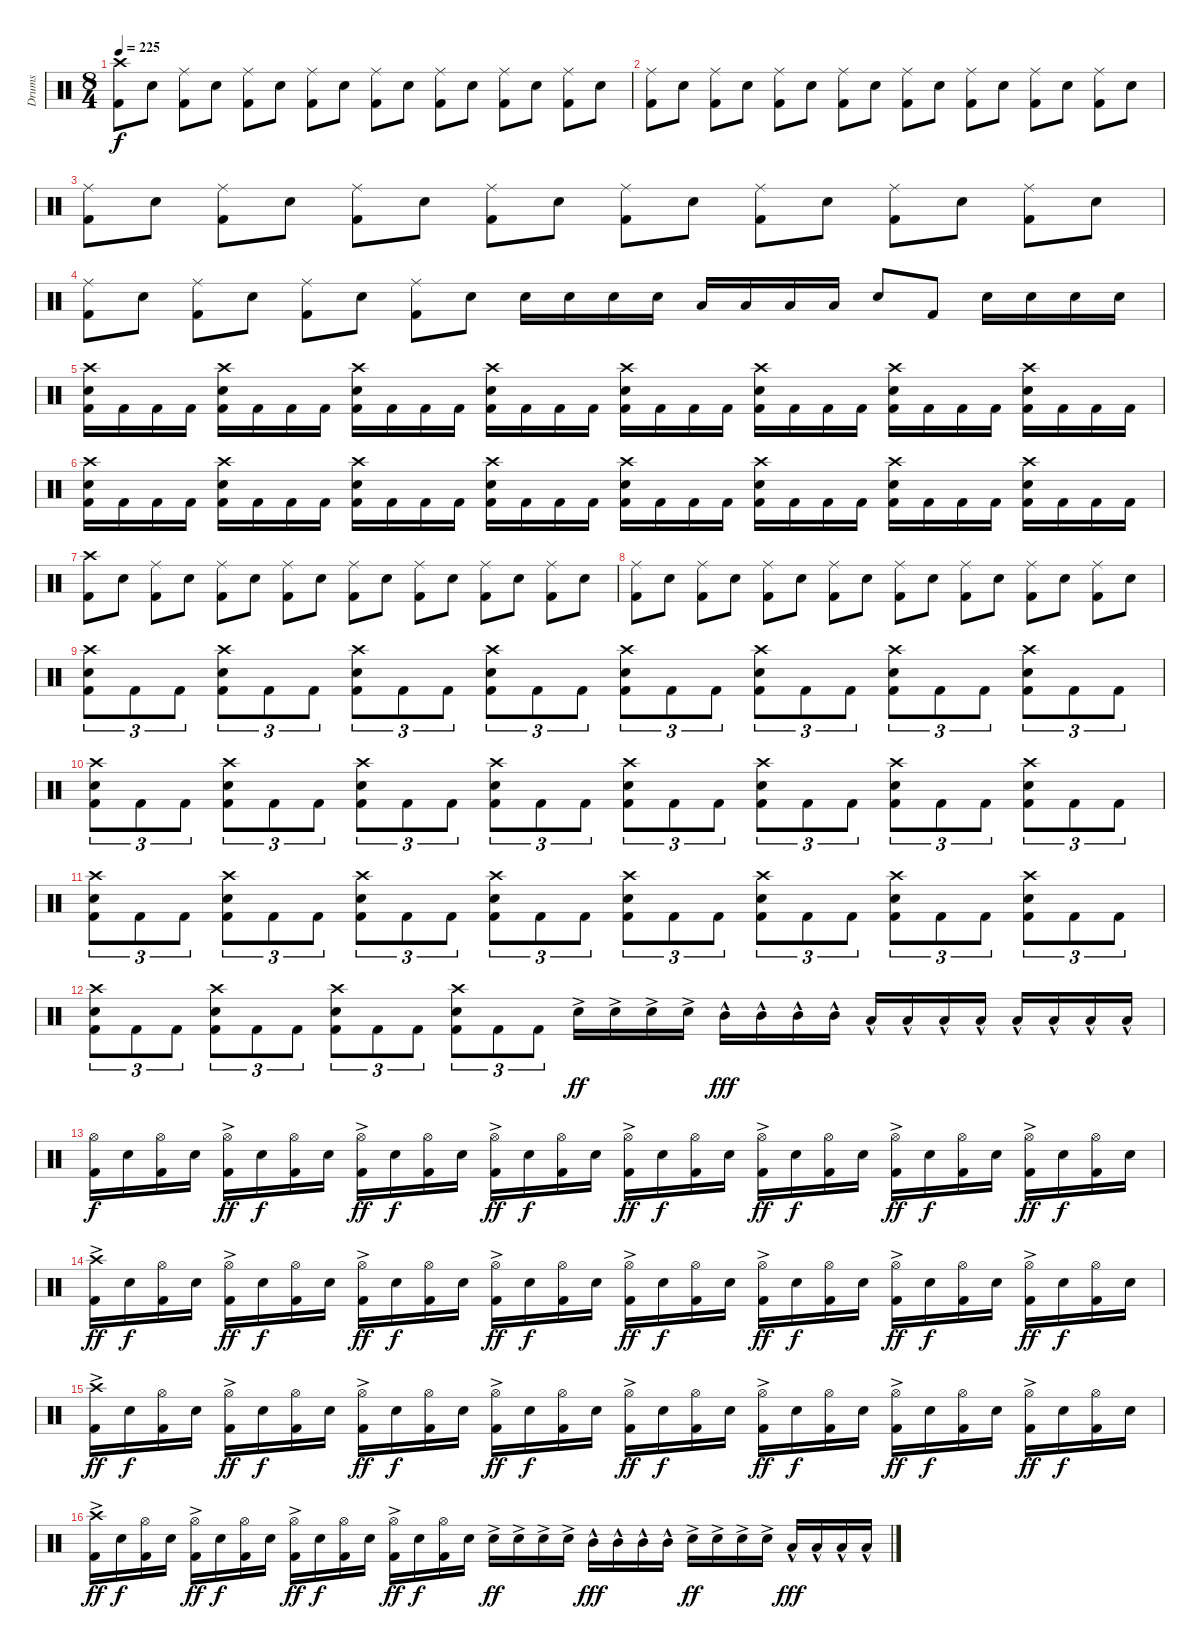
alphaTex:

\track ("Drums" "Drums") {instrument percussion}
\staff {score}
\articulation defaults
\ts (8 4)
\tempo 225
\clef neutral
\ks c
("Crash high (hit)" "Kick (hit) 2").8{dy f} "Electric Snare (hit)".8 ("Ride (middle)" "Kick (hit) 2").8 "Electric Snare (hit)".8 ("Ride (middle)" "Kick (hit) 2").8 "Electric Snare (hit)".8 ("Ride (middle)" "Kick (hit) 2").8 "Electric Snare (hit)".8 ("Ride (middle)" "Kick (hit) 2").8 "Electric Snare (hit)".8 ("Ride (middle)" "Kick (hit) 2").8 "Electric Snare (hit)".8 ("Ride (middle)" "Kick (hit) 2").8 "Electric Snare (hit)".8 ("Ride (middle)" "Kick (hit) 2").8 "Electric Snare (hit)".8 |
("Ride (middle)" "Kick (hit) 2").8 "Electric Snare (hit)".8 ("Ride (middle)" "Kick (hit) 2").8 "Electric Snare (hit)".8 ("Ride (middle)" "Kick (hit) 2").8 "Electric Snare (hit)".8 ("Ride (middle)" "Kick (hit) 2").8 "Electric Snare (hit)".8 ("Ride (middle)" "Kick (hit) 2").8 "Electric Snare (hit)".8 ("Ride (middle)" "Kick (hit) 2").8 "Electric Snare (hit)".8 ("Ride (middle)" "Kick (hit) 2").8 "Electric Snare (hit)".8 ("Ride (middle)" "Kick (hit) 2").8 "Electric Snare (hit)".8 |
("Ride (middle)" "Kick (hit) 2").8 "Electric Snare (hit)".8 ("Ride (middle)" "Kick (hit) 2").8 "Electric Snare (hit)".8 ("Ride (middle)" "Kick (hit) 2").8 "Electric Snare (hit)".8 ("Ride (middle)" "Kick (hit) 2").8 "Electric Snare (hit)".8 ("Ride (middle)" "Kick (hit) 2").8 "Electric Snare (hit)".8 ("Ride (middle)" "Kick (hit) 2").8 "Electric Snare (hit)".8 ("Ride (middle)" "Kick (hit) 2").8 "Electric Snare (hit)".8 ("Ride (middle)" "Kick (hit) 2").8 "Electric Snare (hit)".8 |
("Ride (middle)" "Kick (hit) 2").8 "Electric Snare (hit)".8 ("Ride (middle)" "Kick (hit) 2").8 "Electric Snare (hit)".8 ("Ride (middle)" "Kick (hit) 2").8 "Electric Snare (hit)".8 ("Ride (middle)" "Kick (hit) 2").8 "Electric Snare (hit)".8 "Electric Snare (hit)".16 "Electric Snare (hit)".16 "Electric Snare (hit)".16 "Electric Snare (hit)".16 "Low Tom (hit)".16 "Low Tom (hit)".16 "Low Tom (hit)".16 "Low Tom (hit)".16 "Electric Snare (hit)".8 "Kick (hit) 2".8 "Electric Snare (hit)".16 "Electric Snare (hit)".16 "Electric Snare (hit)".16 "Electric Snare (hit)".16 |
("Crash high (hit)" "Electric Snare (hit)" "Kick (hit) 2").16 "Kick (hit) 2".16 "Kick (hit) 2".16 "Kick (hit) 2".16 ("Crash high (hit)" "Electric Snare (hit)" "Kick (hit) 2").16 "Kick (hit) 2".16 "Kick (hit) 2".16 "Kick (hit) 2".16 ("Crash high (hit)" "Electric Snare (hit)" "Kick (hit) 2").16 "Kick (hit) 2".16 "Kick (hit) 2".16 "Kick (hit) 2".16 ("Crash high (hit)" "Electric Snare (hit)" "Kick (hit) 2").16 "Kick (hit) 2".16 "Kick (hit) 2".16 "Kick (hit) 2".16 ("Crash high (hit)" "Electric Snare (hit)" "Kick (hit) 2").16 "Kick (hit) 2".16 "Kick (hit) 2".16 "Kick (hit) 2".16 ("Crash high (hit)" "Electric Snare (hit)" "Kick (hit) 2").16 "Kick (hit) 2".16 "Kick (hit) 2".16 "Kick (hit) 2".16 ("Crash high (hit)" "Electric Snare (hit)" "Kick (hit) 2").16 "Kick (hit) 2".16 "Kick (hit) 2".16 "Kick (hit) 2".16 ("Crash high (hit)" "Electric Snare (hit)" "Kick (hit) 2").16 "Kick (hit) 2".16 "Kick (hit) 2".16 "Kick (hit) 2".16 |
("Crash high (hit)" "Electric Snare (hit)" "Kick (hit) 2").16 "Kick (hit) 2".16 "Kick (hit) 2".16 "Kick (hit) 2".16 ("Crash high (hit)" "Electric Snare (hit)" "Kick (hit) 2").16 "Kick (hit) 2".16 "Kick (hit) 2".16 "Kick (hit) 2".16 ("Crash high (hit)" "Electric Snare (hit)" "Kick (hit) 2").16 "Kick (hit) 2".16 "Kick (hit) 2".16 "Kick (hit) 2".16 ("Crash high (hit)" "Electric Snare (hit)" "Kick (hit) 2").16 "Kick (hit) 2".16 "Kick (hit) 2".16 "Kick (hit) 2".16 ("Crash high (hit)" "Electric Snare (hit)" "Kick (hit) 2").16 "Kick (hit) 2".16 "Kick (hit) 2".16 "Kick (hit) 2".16 ("Crash high (hit)" "Electric Snare (hit)" "Kick (hit) 2").16 "Kick (hit) 2".16 "Kick (hit) 2".16 "Kick (hit) 2".16 ("Crash high (hit)" "Electric Snare (hit)" "Kick (hit) 2").16 "Kick (hit) 2".16 "Kick (hit) 2".16 "Kick (hit) 2".16 ("Crash high (hit)" "Electric Snare (hit)" "Kick (hit) 2").16 "Kick (hit) 2".16 "Kick (hit) 2".16 "Kick (hit) 2".16 |
("Crash high (hit)" "Kick (hit) 2").8 "Electric Snare (hit)".8 ("Ride (middle)" "Kick (hit) 2").8 "Electric Snare (hit)".8 ("Ride (middle)" "Kick (hit) 2").8 "Electric Snare (hit)".8 ("Ride (middle)" "Kick (hit) 2").8 "Electric Snare (hit)".8 ("Ride (middle)" "Kick (hit) 2").8 "Electric Snare (hit)".8 ("Ride (middle)" "Kick (hit) 2").8 "Electric Snare (hit)".8 ("Ride (middle)" "Kick (hit) 2").8 "Electric Snare (hit)".8 ("Ride (middle)" "Kick (hit) 2").8 "Electric Snare (hit)".8 |
("Ride (middle)" "Kick (hit) 2").8 "Electric Snare (hit)".8 ("Ride (middle)" "Kick (hit) 2").8 "Electric Snare (hit)".8 ("Ride (middle)" "Kick (hit) 2").8 "Electric Snare (hit)".8 ("Ride (middle)" "Kick (hit) 2").8 "Electric Snare (hit)".8 ("Ride (middle)" "Kick (hit) 2").8 "Electric Snare (hit)".8 ("Ride (middle)" "Kick (hit) 2").8 "Electric Snare (hit)".8 ("Ride (middle)" "Kick (hit) 2").8 "Electric Snare (hit)".8 ("Ride (middle)" "Kick (hit) 2").8 "Electric Snare (hit)".8 |
("Crash high (hit)" "Electric Snare (hit)" "Kick (hit) 2").8{tu (3 2)} "Kick (hit) 2".8{tu (3 2)} "Kick (hit) 2".8{tu (3 2)} ("Crash high (hit)" "Electric Snare (hit)" "Kick (hit) 2").8{tu (3 2)} "Kick (hit) 2".8{tu (3 2)} "Kick (hit) 2".8{tu (3 2)} ("Crash high (hit)" "Electric Snare (hit)" "Kick (hit) 2").8{tu (3 2)} "Kick (hit) 2".8{tu (3 2)} "Kick (hit) 2".8{tu (3 2)} ("Crash high (hit)" "Electric Snare (hit)" "Kick (hit) 2").8{tu (3 2)} "Kick (hit) 2".8{tu (3 2)} "Kick (hit) 2".8{tu (3 2)} ("Crash high (hit)" "Electric Snare (hit)" "Kick (hit) 2").8{tu (3 2)} "Kick (hit) 2".8{tu (3 2)} "Kick (hit) 2".8{tu (3 2)} ("Crash high (hit)" "Electric Snare (hit)" "Kick (hit) 2").8{tu (3 2)} "Kick (hit) 2".8{tu (3 2)} "Kick (hit) 2".8{tu (3 2)} ("Crash high (hit)" "Electric Snare (hit)" "Kick (hit) 2").8{tu (3 2)} "Kick (hit) 2".8{tu (3 2)} "Kick (hit) 2".8{tu (3 2)} ("Crash high (hit)" "Electric Snare (hit)" "Kick (hit) 2").8{tu (3 2)} "Kick (hit) 2".8{tu (3 2)} "Kick (hit) 2".8{tu (3 2)} |
("Crash high (hit)" "Electric Snare (hit)" "Kick (hit) 2").8{tu (3 2)} "Kick (hit) 2".8{tu (3 2)} "Kick (hit) 2".8{tu (3 2)} ("Crash high (hit)" "Electric Snare (hit)" "Kick (hit) 2").8{tu (3 2)} "Kick (hit) 2".8{tu (3 2)} "Kick (hit) 2".8{tu (3 2)} ("Crash high (hit)" "Electric Snare (hit)" "Kick (hit) 2").8{tu (3 2)} "Kick (hit) 2".8{tu (3 2)} "Kick (hit) 2".8{tu (3 2)} ("Crash high (hit)" "Electric Snare (hit)" "Kick (hit) 2").8{tu (3 2)} "Kick (hit) 2".8{tu (3 2)} "Kick (hit) 2".8{tu (3 2)} ("Crash high (hit)" "Electric Snare (hit)" "Kick (hit) 2").8{tu (3 2)} "Kick (hit) 2".8{tu (3 2)} "Kick (hit) 2".8{tu (3 2)} ("Crash high (hit)" "Electric Snare (hit)" "Kick (hit) 2").8{tu (3 2)} "Kick (hit) 2".8{tu (3 2)} "Kick (hit) 2".8{tu (3 2)} ("Crash high (hit)" "Electric Snare (hit)" "Kick (hit) 2").8{tu (3 2)} "Kick (hit) 2".8{tu (3 2)} "Kick (hit) 2".8{tu (3 2)} ("Crash high (hit)" "Electric Snare (hit)" "Kick (hit) 2").8{tu (3 2)} "Kick (hit) 2".8{tu (3 2)} "Kick (hit) 2".8{tu (3 2)} |
("Crash high (hit)" "Electric Snare (hit)" "Kick (hit) 2").8{tu (3 2)} "Kick (hit) 2".8{tu (3 2)} "Kick (hit) 2".8{tu (3 2)} ("Crash high (hit)" "Electric Snare (hit)" "Kick (hit) 2").8{tu (3 2)} "Kick (hit) 2".8{tu (3 2)} "Kick (hit) 2".8{tu (3 2)} ("Crash high (hit)" "Electric Snare (hit)" "Kick (hit) 2").8{tu (3 2)} "Kick (hit) 2".8{tu (3 2)} "Kick (hit) 2".8{tu (3 2)} ("Crash high (hit)" "Electric Snare (hit)" "Kick (hit) 2").8{tu (3 2)} "Kick (hit) 2".8{tu (3 2)} "Kick (hit) 2".8{tu (3 2)} ("Crash high (hit)" "Electric Snare (hit)" "Kick (hit) 2").8{tu (3 2)} "Kick (hit) 2".8{tu (3 2)} "Kick (hit) 2".8{tu (3 2)} ("Crash high (hit)" "Electric Snare (hit)" "Kick (hit) 2").8{tu (3 2)} "Kick (hit) 2".8{tu (3 2)} "Kick (hit) 2".8{tu (3 2)} ("Crash high (hit)" "Electric Snare (hit)" "Kick (hit) 2").8{tu (3 2)} "Kick (hit) 2".8{tu (3 2)} "Kick (hit) 2".8{tu (3 2)} ("Crash high (hit)" "Electric Snare (hit)" "Kick (hit) 2").8{tu (3 2)} "Kick (hit) 2".8{tu (3 2)} "Kick (hit) 2".8{tu (3 2)} |
("Crash high (hit)" "Electric Snare (hit)" "Kick (hit) 2").8{tu (3 2)} "Kick (hit) 2".8{tu (3 2)} "Kick (hit) 2".8{tu (3 2)} ("Crash high (hit)" "Electric Snare (hit)" "Kick (hit) 2").8{tu (3 2)} "Kick (hit) 2".8{tu (3 2)} "Kick (hit) 2".8{tu (3 2)} ("Crash high (hit)" "Electric Snare (hit)" "Kick (hit) 2").8{tu (3 2)} "Kick (hit) 2".8{tu (3 2)} "Kick (hit) 2".8{tu (3 2)} ("Crash high (hit)" "Electric Snare (hit)" "Kick (hit) 2").8{tu (3 2)} "Kick (hit) 2".8{tu (3 2)} "Kick (hit) 2".8{tu (3 2)} "Electric Snare (hit)"{ac}.16{dy ff} "Electric Snare (hit)"{ac}.16 "Electric Snare (hit)"{ac}.16 "Electric Snare (hit)"{ac}.16 "Mid Tom (hit)"{hac}.16{dy fff} "Mid Tom (hit)"{hac}.16 "Mid Tom (hit)"{hac}.16 "Mid Tom (hit)"{hac}.16 "Low Tom (hit)"{hac}.16 "Low Tom (hit)"{hac}.16 "Low Tom (hit)"{hac}.16 "Low Tom (hit)"{hac}.16 "Low Floor Tom (hit)"{hac}.16 "Low Floor Tom (hit)"{hac}.16 "Low Floor Tom (hit)"{hac}.16 "Low Floor Tom (hit)"{hac}.16 |
("Hi-Hat (open)" "Kick (hit) 2").16{dy f} "Electric Snare (hit)".16 ("Hi-Hat (open)" "Kick (hit) 2").16 "Electric Snare (hit)".16 ("Hi-Hat (open)"{ac} "Kick (hit) 2").16{dy ff} "Electric Snare (hit)".16{dy f} ("Hi-Hat (open)" "Kick (hit) 2").16 "Electric Snare (hit)".16 ("Hi-Hat (open)"{ac} "Kick (hit) 2").16{dy ff} "Electric Snare (hit)".16{dy f} ("Hi-Hat (open)" "Kick (hit) 2").16 "Electric Snare (hit)".16 ("Hi-Hat (open)"{ac} "Kick (hit) 2").16{dy ff} "Electric Snare (hit)".16{dy f} ("Hi-Hat (open)" "Kick (hit) 2").16 "Electric Snare (hit)".16 ("Hi-Hat (open)"{ac} "Kick (hit) 2").16{dy ff} "Electric Snare (hit)".16{dy f} ("Hi-Hat (open)" "Kick (hit) 2").16 "Electric Snare (hit)".16 ("Hi-Hat (open)"{ac} "Kick (hit) 2").16{dy ff} "Electric Snare (hit)".16{dy f} ("Hi-Hat (open)" "Kick (hit) 2").16 "Electric Snare (hit)".16 ("Hi-Hat (open)"{ac} "Kick (hit) 2").16{dy ff} "Electric Snare (hit)".16{dy f} ("Hi-Hat (open)" "Kick (hit) 2").16 "Electric Snare (hit)".16 ("Hi-Hat (open)"{ac} "Kick (hit) 2").16{dy ff} "Electric Snare (hit)".16{dy f} ("Hi-Hat (open)" "Kick (hit) 2").16 "Electric Snare (hit)".16 |
("Crash high (hit)"{ac} "Kick (hit) 2").16{dy ff} "Electric Snare (hit)".16{dy f} ("Hi-Hat (open)" "Kick (hit) 2").16 "Electric Snare (hit)".16 ("Hi-Hat (open)"{ac} "Kick (hit) 2").16{dy ff} "Electric Snare (hit)".16{dy f} ("Hi-Hat (open)" "Kick (hit) 2").16 "Electric Snare (hit)".16 ("Hi-Hat (open)"{ac} "Kick (hit) 2").16{dy ff} "Electric Snare (hit)".16{dy f} ("Hi-Hat (open)" "Kick (hit) 2").16 "Electric Snare (hit)".16 ("Hi-Hat (open)"{ac} "Kick (hit) 2").16{dy ff} "Electric Snare (hit)".16{dy f} ("Hi-Hat (open)" "Kick (hit) 2").16 "Electric Snare (hit)".16 ("Hi-Hat (open)"{ac} "Kick (hit) 2").16{dy ff} "Electric Snare (hit)".16{dy f} ("Hi-Hat (open)" "Kick (hit) 2").16 "Electric Snare (hit)".16 ("Hi-Hat (open)"{ac} "Kick (hit) 2").16{dy ff} "Electric Snare (hit)".16{dy f} ("Hi-Hat (open)" "Kick (hit) 2").16 "Electric Snare (hit)".16 ("Hi-Hat (open)"{ac} "Kick (hit) 2").16{dy ff} "Electric Snare (hit)".16{dy f} ("Hi-Hat (open)" "Kick (hit) 2").16 "Electric Snare (hit)".16 ("Hi-Hat (open)"{ac} "Kick (hit) 2").16{dy ff} "Electric Snare (hit)".16{dy f} ("Hi-Hat (open)" "Kick (hit) 2").16 "Electric Snare (hit)".16 |
("Crash high (hit)"{ac} "Kick (hit) 2").16{dy ff} "Electric Snare (hit)".16{dy f} ("Hi-Hat (open)" "Kick (hit) 2").16 "Electric Snare (hit)".16 ("Hi-Hat (open)"{ac} "Kick (hit) 2").16{dy ff} "Electric Snare (hit)".16{dy f} ("Hi-Hat (open)" "Kick (hit) 2").16 "Electric Snare (hit)".16 ("Hi-Hat (open)"{ac} "Kick (hit) 2").16{dy ff} "Electric Snare (hit)".16{dy f} ("Hi-Hat (open)" "Kick (hit) 2").16 "Electric Snare (hit)".16 ("Hi-Hat (open)"{ac} "Kick (hit) 2").16{dy ff} "Electric Snare (hit)".16{dy f} ("Hi-Hat (open)" "Kick (hit) 2").16 "Electric Snare (hit)".16 ("Hi-Hat (open)"{ac} "Kick (hit) 2").16{dy ff} "Electric Snare (hit)".16{dy f} ("Hi-Hat (open)" "Kick (hit) 2").16 "Electric Snare (hit)".16 ("Hi-Hat (open)"{ac} "Kick (hit) 2").16{dy ff} "Electric Snare (hit)".16{dy f} ("Hi-Hat (open)" "Kick (hit) 2").16 "Electric Snare (hit)".16 ("Hi-Hat (open)"{ac} "Kick (hit) 2").16{dy ff} "Electric Snare (hit)".16{dy f} ("Hi-Hat (open)" "Kick (hit) 2").16 "Electric Snare (hit)".16 ("Hi-Hat (open)"{ac} "Kick (hit) 2").16{dy ff} "Electric Snare (hit)".16{dy f} ("Hi-Hat (open)" "Kick (hit) 2").16 "Electric Snare (hit)".16 |
("Crash high (hit)"{ac} "Kick (hit) 2").16{dy ff} "Electric Snare (hit)".16{dy f} ("Hi-Hat (open)" "Kick (hit) 2").16 "Electric Snare (hit)".16 ("Hi-Hat (open)"{ac} "Kick (hit) 2").16{dy ff} "Electric Snare (hit)".16{dy f} ("Hi-Hat (open)" "Kick (hit) 2").16 "Electric Snare (hit)".16 ("Hi-Hat (open)"{ac} "Kick (hit) 2").16{dy ff} "Electric Snare (hit)".16{dy f} ("Hi-Hat (open)" "Kick (hit) 2").16 "Electric Snare (hit)".16 ("Hi-Hat (open)"{ac} "Kick (hit) 2").16{dy ff} "Electric Snare (hit)".16{dy f} ("Hi-Hat (open)" "Kick (hit) 2").16 "Electric Snare (hit)".16 "Electric Snare (hit)"{ac}.16{dy ff} "Electric Snare (hit)"{ac}.16 "Electric Snare (hit)"{ac}.16 "Electric Snare (hit)"{ac}.16 "Mid Tom (hit)"{hac}.16{dy fff} "Mid Tom (hit)"{hac}.16 "Mid Tom (hit)"{hac}.16 "Mid Tom (hit)"{hac}.16 "Electric Snare (hit)"{ac}.16{dy ff} "Electric Snare (hit)"{ac}.16 "Electric Snare (hit)"{ac}.16 "Electric Snare (hit)"{ac}.16 "Low Tom (hit)"{hac}.16{dy fff} "Low Tom (hit)"{hac}.16 "Low Tom (hit)"{hac}.16 "Low Tom (hit)"{hac}.16
